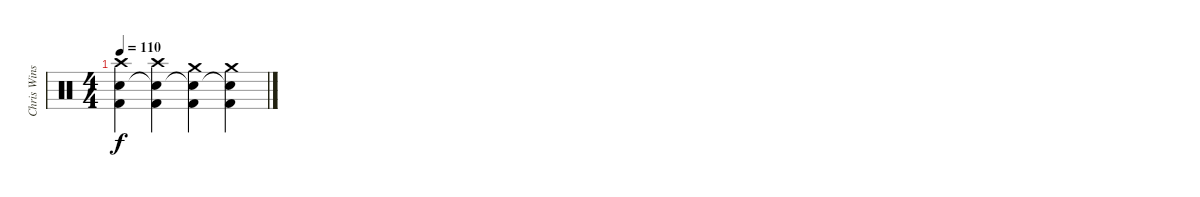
\track ("Chris Winship (Bass)" "Chris Wins") {instrument percussion}
\staff {score}
\articulation defaults
\ts (4 4)
\tempo 110
\clef neutral
\ks c
("Crash high (hit)" "Snare (hit)"{t} "Kick (hit) 2").4{dy f} ("Crash high (hit)" "Snare (hit)"{t} "Kick (hit) 2").4 ("Crash medium (hit)" "Snare (hit)"{t} "Kick (hit) 2").4 ("Crash medium (hit)" "Snare (hit)"{t} "Kick (hit) 2").4
